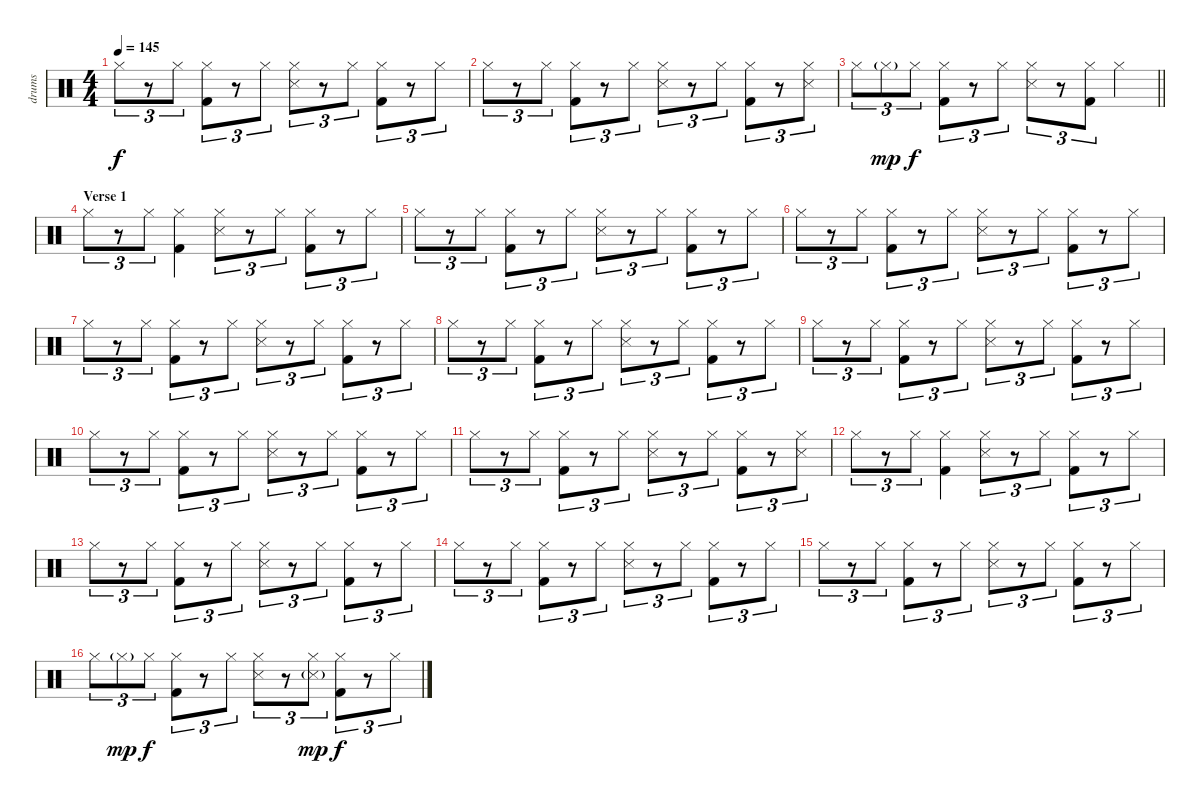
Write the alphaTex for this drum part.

\track ("drums" "drums") {instrument percussion}
\staff {score}
\articulation defaults
\ts (4 4)
\tempo 145
\clef neutral
\ks c "Hi-Hat (closed)".8{tu (3 2) dy f}
r.8{tu (3 2)} "Hi-Hat (closed)".8{tu (3 2)} ("Hi-Hat (closed)" "Kick (hit) 2").8{tu (3 2)} r.8{tu (3 2)} "Hi-Hat (closed)".8{tu (3 2)} ("Hi-Hat (closed)" "Snare (side stick) 3").8{tu (3 2)} r.8{tu (3 2)} "Hi-Hat (closed)".8{tu (3 2)} ("Hi-Hat (closed)" "Kick (hit) 2").8{tu (3 2)} r.8{tu (3 2)} "Hi-Hat (closed)".8{tu (3 2)} |
"Hi-Hat (closed)".8{tu (3 2)} r.8{tu (3 2)} "Hi-Hat (closed)".8{tu (3 2)} ("Hi-Hat (closed)" "Kick (hit) 2").8{tu (3 2)} r.8{tu (3 2)} "Hi-Hat (closed)".8{tu (3 2)} ("Hi-Hat (closed)" "Snare (side stick) 3").8{tu (3 2)} r.8{tu (3 2)} "Hi-Hat (closed)".8{tu (3 2)} ("Hi-Hat (closed)" "Kick (hit) 2").8{tu (3 2)} r.8{tu (3 2)} ("Hi-Hat (closed)" "Snare (side stick) 3").8{tu (3 2)} |
\barLineRight lightlight "Hi-Hat (closed)".8{tu (3 2)} "Hi-Hat (closed)"{g}.8{tu (3 2) dy mp} "Hi-Hat (closed)".8{tu (3 2) dy f}
("Hi-Hat (closed)" "Kick (hit) 2").8{tu (3 2)} r.8{tu (3 2)} "Hi-Hat (closed)".8{tu (3 2)} ("Hi-Hat (closed)" "Snare (side stick) 3").8{tu (3 2)} r.8{tu (3 2)} ("Hi-Hat (closed)" "Kick (hit) 2").8{tu (3 2)} "Hi-Hat (closed)".4 |
\section ("" "Verse 1")
"Hi-Hat (closed)".8{tu (3 2)} r.8{tu (3 2)} "Hi-Hat (closed)".8{tu (3 2)} ("Hi-Hat (closed)" "Kick (hit) 2").4 ("Hi-Hat (closed)" "Snare (side stick) 3").8{tu (3 2)} r.8{tu (3 2)} "Hi-Hat (closed)".8{tu (3 2)} ("Hi-Hat (closed)" "Kick (hit) 2").8{tu (3 2)} r.8{tu (3 2)} "Hi-Hat (closed)".8{tu (3 2)} |
"Hi-Hat (closed)".8{tu (3 2)} r.8{tu (3 2)} "Hi-Hat (closed)".8{tu (3 2)} ("Hi-Hat (closed)" "Kick (hit) 2").8{tu (3 2)} r.8{tu (3 2)} "Hi-Hat (closed)".8{tu (3 2)} ("Hi-Hat (closed)" "Snare (side stick) 3").8{tu (3 2)} r.8{tu (3 2)} "Hi-Hat (closed)".8{tu (3 2)} ("Hi-Hat (closed)" "Kick (hit) 2").8{tu (3 2)} r.8{tu (3 2)} "Hi-Hat (closed)".8{tu (3 2)} |
"Hi-Hat (closed)".8{tu (3 2)} r.8{tu (3 2)} "Hi-Hat (closed)".8{tu (3 2)} ("Hi-Hat (closed)" "Kick (hit) 2").8{tu (3 2)} r.8{tu (3 2)} "Hi-Hat (closed)".8{tu (3 2)} ("Hi-Hat (closed)" "Snare (side stick) 3").8{tu (3 2)} r.8{tu (3 2)} "Hi-Hat (closed)".8{tu (3 2)} ("Hi-Hat (closed)" "Kick (hit) 2").8{tu (3 2)} r.8{tu (3 2)} "Hi-Hat (closed)".8{tu (3 2)} |
"Hi-Hat (closed)".8{tu (3 2)} r.8{tu (3 2)} "Hi-Hat (closed)".8{tu (3 2)} ("Hi-Hat (closed)" "Kick (hit) 2").8{tu (3 2)} r.8{tu (3 2)} "Hi-Hat (closed)".8{tu (3 2)} ("Hi-Hat (closed)" "Snare (side stick) 3").8{tu (3 2)} r.8{tu (3 2)} "Hi-Hat (closed)".8{tu (3 2)} ("Hi-Hat (closed)" "Kick (hit) 2").8{tu (3 2)} r.8{tu (3 2)} "Hi-Hat (closed)".8{tu (3 2)} |
"Hi-Hat (closed)".8{tu (3 2)} r.8{tu (3 2)} "Hi-Hat (closed)".8{tu (3 2)} ("Hi-Hat (closed)" "Kick (hit) 2").8{tu (3 2)} r.8{tu (3 2)} "Hi-Hat (closed)".8{tu (3 2)} ("Hi-Hat (closed)" "Snare (side stick) 3").8{tu (3 2)} r.8{tu (3 2)} "Hi-Hat (closed)".8{tu (3 2)} ("Hi-Hat (closed)" "Kick (hit) 2").8{tu (3 2)} r.8{tu (3 2)} "Hi-Hat (closed)".8{tu (3 2)} |
"Hi-Hat (closed)".8{tu (3 2)} r.8{tu (3 2)} "Hi-Hat (closed)".8{tu (3 2)} ("Hi-Hat (closed)" "Kick (hit) 2").8{tu (3 2)} r.8{tu (3 2)} "Hi-Hat (closed)".8{tu (3 2)} ("Hi-Hat (closed)" "Snare (side stick) 3").8{tu (3 2)} r.8{tu (3 2)} "Hi-Hat (closed)".8{tu (3 2)} ("Hi-Hat (closed)" "Kick (hit) 2").8{tu (3 2)} r.8{tu (3 2)} "Hi-Hat (closed)".8{tu (3 2)} |
"Hi-Hat (closed)".8{tu (3 2)} r.8{tu (3 2)} "Hi-Hat (closed)".8{tu (3 2)} ("Hi-Hat (closed)" "Kick (hit) 2").8{tu (3 2)} r.8{tu (3 2)} "Hi-Hat (closed)".8{tu (3 2)} ("Hi-Hat (closed)" "Snare (side stick) 3").8{tu (3 2)} r.8{tu (3 2)} "Hi-Hat (closed)".8{tu (3 2)} ("Hi-Hat (closed)" "Kick (hit) 2").8{tu (3 2)} r.8{tu (3 2)} "Hi-Hat (closed)".8{tu (3 2)} |
"Hi-Hat (closed)".8{tu (3 2)} r.8{tu (3 2)} "Hi-Hat (closed)".8{tu (3 2)} ("Hi-Hat (closed)" "Kick (hit) 2").8{tu (3 2)} r.8{tu (3 2)} "Hi-Hat (closed)".8{tu (3 2)} ("Hi-Hat (closed)" "Snare (side stick) 3").8{tu (3 2)} r.8{tu (3 2)} "Hi-Hat (closed)".8{tu (3 2)} ("Hi-Hat (closed)" "Kick (hit) 2").8{tu (3 2)} r.8{tu (3 2)} ("Hi-Hat (closed)" "Snare (side stick) 3").8{tu (3 2)} |
"Hi-Hat (closed)".8{tu (3 2)} r.8{tu (3 2)} "Hi-Hat (closed)".8{tu (3 2)} ("Hi-Hat (closed)" "Kick (hit) 2").4 ("Hi-Hat (closed)" "Snare (side stick) 3").8{tu (3 2)} r.8{tu (3 2)} "Hi-Hat (closed)".8{tu (3 2)} ("Hi-Hat (closed)" "Kick (hit) 2").8{tu (3 2)} r.8{tu (3 2)} "Hi-Hat (closed)".8{tu (3 2)} |
"Hi-Hat (closed)".8{tu (3 2)} r.8{tu (3 2)} "Hi-Hat (closed)".8{tu (3 2)} ("Hi-Hat (closed)" "Kick (hit) 2").8{tu (3 2)} r.8{tu (3 2)} "Hi-Hat (closed)".8{tu (3 2)} ("Hi-Hat (closed)" "Snare (side stick) 3").8{tu (3 2)} r.8{tu (3 2)} "Hi-Hat (closed)".8{tu (3 2)} ("Hi-Hat (closed)" "Kick (hit) 2").8{tu (3 2)} r.8{tu (3 2)} "Hi-Hat (closed)".8{tu (3 2)} |
"Hi-Hat (closed)".8{tu (3 2)} r.8{tu (3 2)} "Hi-Hat (closed)".8{tu (3 2)} ("Hi-Hat (closed)" "Kick (hit) 2").8{tu (3 2)} r.8{tu (3 2)} "Hi-Hat (closed)".8{tu (3 2)} ("Hi-Hat (closed)" "Snare (side stick) 3").8{tu (3 2)} r.8{tu (3 2)} "Hi-Hat (closed)".8{tu (3 2)} ("Hi-Hat (closed)" "Kick (hit) 2").8{tu (3 2)} r.8{tu (3 2)} "Hi-Hat (closed)".8{tu (3 2)} |
"Hi-Hat (closed)".8{tu (3 2)} r.8{tu (3 2)} "Hi-Hat (closed)".8{tu (3 2)} ("Hi-Hat (closed)" "Kick (hit) 2").8{tu (3 2)} r.8{tu (3 2)} "Hi-Hat (closed)".8{tu (3 2)} ("Hi-Hat (closed)" "Snare (side stick) 3").8{tu (3 2)} r.8{tu (3 2)} "Hi-Hat (closed)".8{tu (3 2)} ("Hi-Hat (closed)" "Kick (hit) 2").8{tu (3 2)} r.8{tu (3 2)} "Hi-Hat (closed)".8{tu (3 2)} |
"Hi-Hat (closed)".8{tu (3 2)} "Hi-Hat (closed)"{g}.8{tu (3 2) dy mp} "Hi-Hat (closed)".8{tu (3 2) dy f} ("Hi-Hat (closed)" "Kick (hit) 2").8{tu (3 2)} r.8{tu (3 2)} "Hi-Hat (closed)".8{tu (3 2)} ("Hi-Hat (closed)" "Snare (side stick) 3").8{tu (3 2)} r.8{tu (3 2)} ("Hi-Hat (closed)" "Snare (side stick) 3"{g}).8{tu (3 2) dy mp} ("Hi-Hat (closed)" "Kick (hit) 2").8{tu (3 2) dy f} r.8{tu (3 2)} "Hi-Hat (closed)".8{tu (3 2)}
